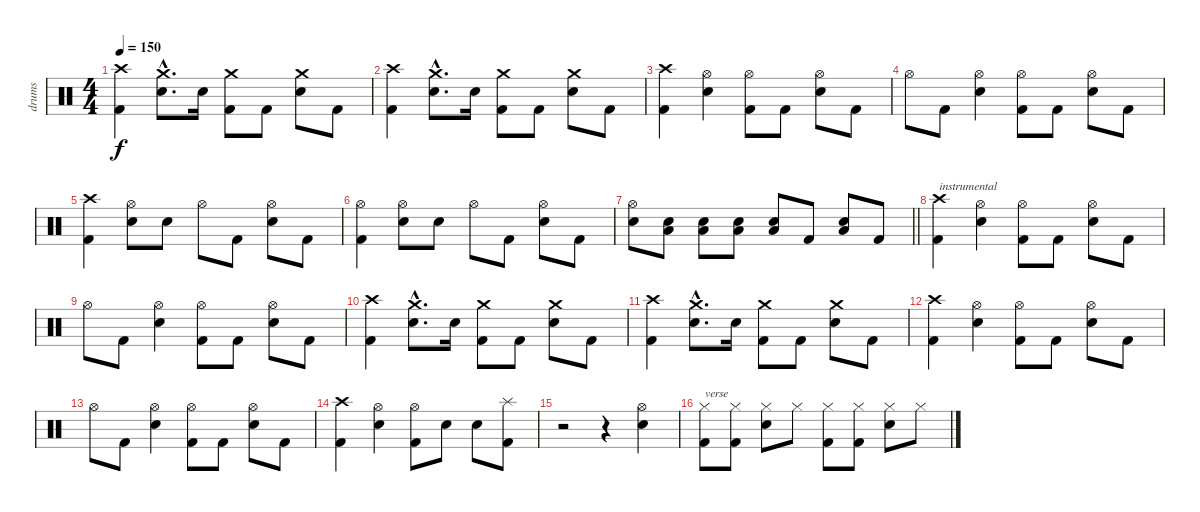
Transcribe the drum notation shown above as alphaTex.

\track ("drums" "drums") {instrument percussion}
\staff {score}
\articulation defaults
\ts (4 4)
\tempo 150
\clef neutral
\ks c
("Crash high (hit)" "Kick (hit) 2").4{dy f} ("Crash medium (hit)"{hac} "Electric Snare (hit)"{hac}).8{d} "Electric Snare (hit)".16 ("Crash medium (hit)" "Kick (hit) 2").8 "Kick (hit) 2".8 ("Crash medium (hit)" "Electric Snare (hit)").8 "Kick (hit) 2".8 |
("Crash high (hit)" "Kick (hit) 2").4 ("Crash medium (hit)"{hac} "Electric Snare (hit)"{hac}).8{d} "Electric Snare (hit)".16 ("Crash medium (hit)" "Kick (hit) 2").8 "Kick (hit) 2".8 ("Crash medium (hit)" "Electric Snare (hit)").8 "Kick (hit) 2".8 |
("Crash high (hit)" "Kick (hit) 2").4 ("Hi-Hat (open)" "Electric Snare (hit)").4 ("Hi-Hat (open)" "Kick (hit) 2").8 "Kick (hit) 2".8 ("Hi-Hat (open)" "Electric Snare (hit)").8 "Kick (hit) 2".8 |
"Hi-Hat (open)".8 "Kick (hit) 2".8 ("Hi-Hat (open)" "Electric Snare (hit)").4 ("Hi-Hat (open)" "Kick (hit) 2").8 "Kick (hit) 2".8 ("Hi-Hat (open)" "Electric Snare (hit)").8 "Kick (hit) 2".8 |
("Crash high (hit)" "Kick (hit) 2").4 ("Hi-Hat (open)" "Electric Snare (hit)").8 "Electric Snare (hit)".8 "Hi-Hat (open)".8 "Kick (hit) 2".8 ("Hi-Hat (open)" "Electric Snare (hit)").8 "Kick (hit) 2".8 |
("Hi-Hat (open)" "Kick (hit) 2").4 ("Hi-Hat (open)" "Electric Snare (hit)").8 "Electric Snare (hit)".8 "Hi-Hat (open)".8 "Kick (hit) 2".8 ("Hi-Hat (open)" "Electric Snare (hit)").8 "Kick (hit) 2".8 |
\barLineRight lightlight
("Snare (hit) 2" "Hi-Hat (open)").8 ("Snare (hit) 2" "Low Floor Tom (hit)").8 ("Snare (hit) 2" "Low Floor Tom (hit)").8 ("Snare (hit) 2" "Low Floor Tom (hit)").8 ("Snare (hit) 2" "Low Floor Tom (hit)").8 "Kick (hit) 2".8 ("Snare (hit) 2" "Low Floor Tom (hit)").8 "Kick (hit) 2".8 |
("Crash high (hit)" "Kick (hit) 2").4{txt "instrumental"} ("Hi-Hat (open)" "Electric Snare (hit)").4 ("Hi-Hat (open)" "Kick (hit) 2").8 "Kick (hit) 2".8 ("Hi-Hat (open)" "Electric Snare (hit)").8 "Kick (hit) 2".8 |
"Hi-Hat (open)".8 "Kick (hit) 2".8 ("Hi-Hat (open)" "Electric Snare (hit)").4 ("Hi-Hat (open)" "Kick (hit) 2").8 "Kick (hit) 2".8 ("Hi-Hat (open)" "Electric Snare (hit)").8 "Kick (hit) 2".8 |
("Crash high (hit)" "Kick (hit) 2").4 ("Crash medium (hit)"{hac} "Electric Snare (hit)"{hac}).8{d} "Electric Snare (hit)".16 ("Crash medium (hit)" "Kick (hit) 2").8 "Kick (hit) 2".8 ("Crash medium (hit)" "Electric Snare (hit)").8 "Kick (hit) 2".8 |
("Crash high (hit)" "Kick (hit) 2").4 ("Crash medium (hit)"{hac} "Electric Snare (hit)"{hac}).8{d} "Electric Snare (hit)".16 ("Crash medium (hit)" "Kick (hit) 2").8 "Kick (hit) 2".8 ("Crash medium (hit)" "Electric Snare (hit)").8 "Kick (hit) 2".8 |
("Crash high (hit)" "Kick (hit) 2").4 ("Hi-Hat (open)" "Electric Snare (hit)").4 ("Hi-Hat (open)" "Kick (hit) 2").8 "Kick (hit) 2".8 ("Hi-Hat (open)" "Electric Snare (hit)").8 "Kick (hit) 2".8 |
"Hi-Hat (open)".8 "Kick (hit) 2".8 ("Hi-Hat (open)" "Electric Snare (hit)").4 ("Hi-Hat (open)" "Kick (hit) 2").8 "Kick (hit) 2".8 ("Hi-Hat (open)" "Electric Snare (hit)").8 "Kick (hit) 2".8 |
("Crash high (hit)" "Kick (hit) 2").4 ("Hi-Hat (open)" "Electric Snare (hit)").4 ("Hi-Hat (open)" "Kick (hit) 2").8 "Electric Snare (hit)".8 "Electric Snare (hit)".8 ("Splash (hit)" "Kick (hit) 2").8 |
r.2 r.4 ("Hi-Hat (open)" "Electric Snare (hit)").4 |
("Hi-Hat (closed)" "Kick (hit) 2").8{txt "verse"} ("Hi-Hat (closed)" "Kick (hit) 2").8 ("Hi-Hat (closed)" "Electric Snare (hit)").8 "Hi-Hat (closed)".8 ("Hi-Hat (closed)" "Kick (hit) 2").8 ("Hi-Hat (closed)" "Kick (hit) 2").8 ("Hi-Hat (closed)" "Electric Snare (hit)").8 "Hi-Hat (closed)".8
